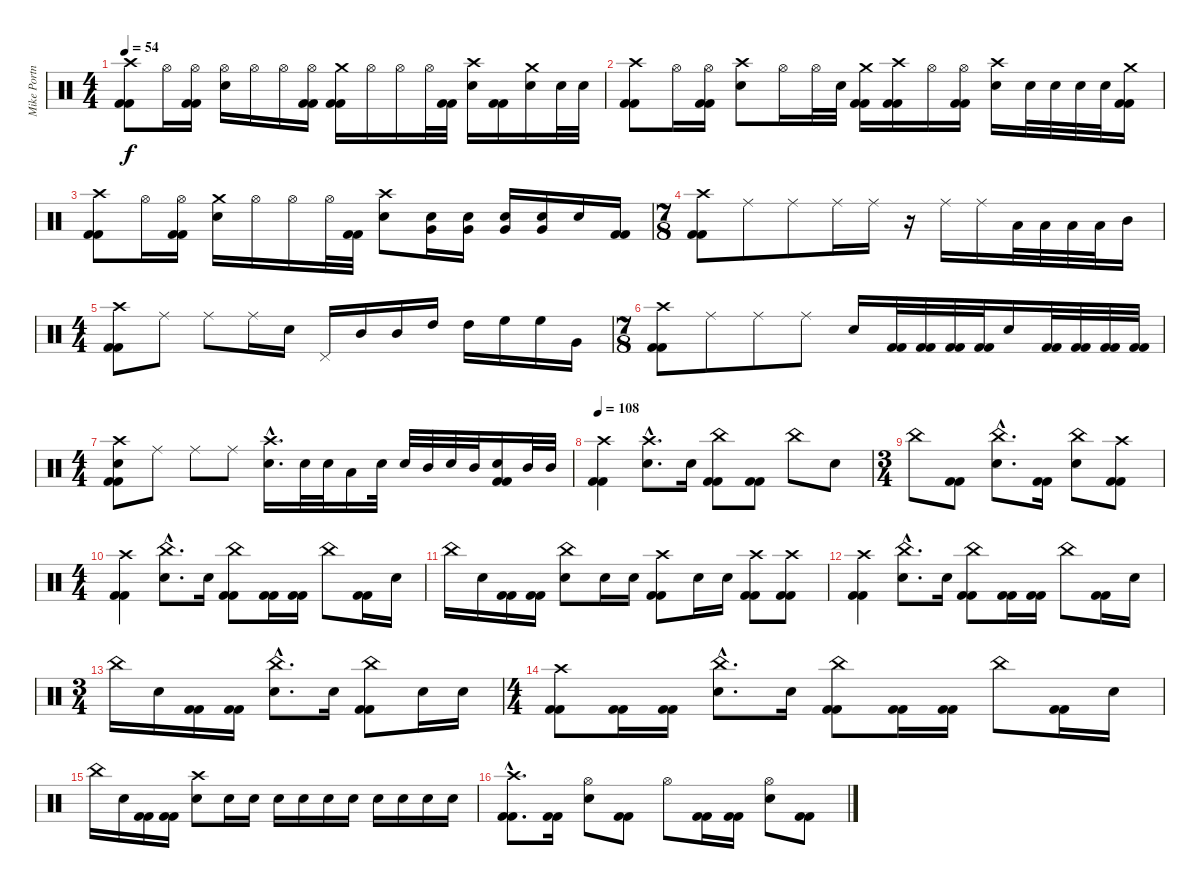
\track ("Mike Portnoy - Drum" "Mike Portn") {instrument percussion}
\staff {score}
\articulation defaults
\ts (4 4)
\tempo 54
\clef neutral
\ks c
("Crash high (hit)" "Kick (hit) 2" "Kick (hit) 2").8{dy f} "Hi-Hat (open)".16 ("Hi-Hat (open)" "Kick (hit) 2" "Kick (hit) 2").16 ("Hi-Hat (open)" "Snare (hit) 2").16 "Hi-Hat (open)".16 "Hi-Hat (open)".16 ("Hi-Hat (open)" "Kick (hit) 2" "Kick (hit) 2").16 ("Crash medium (hit)" "Kick (hit) 2" "Kick (hit) 2").16 "Hi-Hat (open)".16 "Hi-Hat (open)".16 "Hi-Hat (open)".32 ("Kick (hit) 2" "Kick (hit) 2").32 ("Crash high (hit)" "Snare (hit) 2").16 ("Kick (hit) 2" "Kick (hit) 2").16 ("Crash medium (hit)" "Snare (hit) 2").16 "Snare (hit) 2".32 "Snare (hit) 2".32 |
("Crash high (hit)" "Kick (hit) 2" "Kick (hit) 2").8 "Hi-Hat (open)".16 ("Hi-Hat (open)" "Kick (hit) 2" "Kick (hit) 2").16 ("Crash high (hit)" "Snare (hit) 2").8 "Hi-Hat (open)".16 "Hi-Hat (open)".32 "Snare (hit) 2".32 ("Crash medium (hit)" "Kick (hit) 2" "Kick (hit) 2").16 ("Crash high (hit)" "Kick (hit) 2" "Kick (hit) 2").16 "Hi-Hat (open)".16 ("Hi-Hat (open)" "Kick (hit) 2" "Kick (hit) 2").16 ("Crash high (hit)" "Snare (hit) 2").16 "Snare (hit) 2".32 "Snare (hit) 2".32 "Snare (hit) 2".32 "Snare (hit) 2".32 ("Crash medium (hit)" "Kick (hit) 2" "Kick (hit) 2").16 |
("Crash high (hit)" "Kick (hit) 2" "Kick (hit) 2").8 "Hi-Hat (open)".16 ("Hi-Hat (open)" "Kick (hit) 2" "Kick (hit) 2").16 ("Crash medium (hit)" "Snare (hit) 2").16 "Hi-Hat (open)".16 "Hi-Hat (open)".16 "Hi-Hat (open)".32 ("Kick (hit) 2" "Kick (hit) 2").32 ("Crash high (hit)" "Snare (hit) 2").8 ("Snare (hit) 2" "Very Low Tom (hit)").16 ("Snare (hit) 2" "Very Low Tom (hit)").16 ("Snare (hit) 2" "Very Low Tom (hit)").16 ("Snare (hit) 2" "Very Low Tom (hit)").16 "Snare (hit) 2".16 ("Kick (hit) 2" "Kick (hit) 2").16 |
\ts (7 8)
("Crash high (hit)" "Kick (hit) 2" "Kick (hit) 2").8 "Ride (middle)".8 "Ride (middle)".8 "Ride (middle)".16 "Ride (middle)".16 r.16 "Ride (middle)".16 "Ride (middle)".16 "Low Tom (hit)".32 "Low Tom (hit)".32 "Low Tom (hit)".32 "Low Tom (hit)".32 "Mid Tom (hit)".16 |
\ts (4 4)
("Crash high (hit)" "Kick (hit) 2" "Kick (hit) 2").8 "Ride (middle)".8 "Ride (middle)".8 "Ride (middle)".16 "Snare (hit) 2".16 "Pedal Hi-Hat (hit)".16 "Mid Tom (hit)".16 "Mid Tom (hit)".16 "High Tom (hit)".16 "High Tom (hit)".16 "High Floor Tom (hit)".16 "High Floor Tom (hit)".16 "Very Low Tom (hit)".16 |
\ts (7 8)
("Crash high (hit)" "Kick (hit) 2" "Kick (hit) 2").8 "Ride (middle)".8 "Ride (middle)".8 "Ride (middle)".8 "Snare (hit) 2".16 ("Kick (hit) 2" "Kick (hit) 2").32 ("Kick (hit) 2" "Kick (hit) 2").32 ("Kick (hit) 2" "Kick (hit) 2").32 ("Kick (hit) 2" "Kick (hit) 2").32 "Snare (hit) 2".16 ("Kick (hit) 2" "Kick (hit) 2").32 ("Kick (hit) 2" "Kick (hit) 2").32 ("Kick (hit) 2" "Kick (hit) 2").32 ("Kick (hit) 2" "Kick (hit) 2").32 |
\ts (4 4)
("Crash high (hit)" "Snare (hit) 2" "Kick (hit) 2" "Kick (hit) 2").8 "Ride (middle)".8 "Ride (middle)".8 "Ride (middle)".8 ("Crash high (hit)"{hac} "Snare (hit) 2"{hac}).16{d} "Snare (hit) 2".32 "Snare (hit) 2".32 "Low Tom (hit)".16 "Snare (hit) 2".32 "Snare (hit) 2".32 "Mid Tom (hit)".32 "Snare (hit) 2".32 "Mid Tom (hit)".32 ("Snare (hit) 2" "Kick (hit) 2" "Kick (hit) 2").16 "Mid Tom (hit)".32 "Mid Tom (hit)".32 |
\tempo 108
("Crash high (hit)" "Kick (hit) 2" "Kick (hit) 2").4 ("Crash high (hit)"{hac} "Snare (hit) 2"{hac}).8{d} "Snare (hit) 2".16 ("China (hit)" "Kick (hit) 2" "Kick (hit) 2").8 ("Kick (hit) 2" "Kick (hit) 2").8 "China (hit)".8 "Snare (hit) 2".8 |
\ts (3 4)
"China (hit)".8 ("Kick (hit) 2" "Kick (hit) 2").8 ("China (hit)"{hac} "Snare (hit) 2"{hac}).8{d} ("Kick (hit) 2" "Kick (hit) 2").16 ("China (hit)" "Snare (hit) 2").8 ("Crash high (hit)" "Kick (hit) 2" "Kick (hit) 2").8 |
\ts (4 4)
("Crash high (hit)" "Kick (hit) 2" "Kick (hit) 2").4 ("China (hit)"{hac} "Snare (hit) 2"{hac}).8{d} "Snare (hit) 2".16 ("China (hit)" "Kick (hit) 2" "Kick (hit) 2").8 ("Kick (hit) 2" "Kick (hit) 2").16 ("Kick (hit) 2" "Kick (hit) 2").16 "China (hit)".8 ("Kick (hit) 2" "Kick (hit) 2").16 "Snare (hit) 2".16 |
"China (hit)".16 "Snare (hit) 2".16 ("Kick (hit) 2" "Kick (hit) 2").16 ("Kick (hit) 2" "Kick (hit) 2").16 ("China (hit)" "Snare (hit) 2").8 "Snare (hit) 2".16 "Snare (hit) 2".16 ("Crash high (hit)" "Kick (hit) 2" "Kick (hit) 2").8 "Snare (hit) 2".16 "Snare (hit) 2".16 ("Crash high (hit)" "Kick (hit) 2" "Kick (hit) 2").8 ("Crash high (hit)" "Kick (hit) 2" "Kick (hit) 2").8 |
("Crash high (hit)" "Kick (hit) 2" "Kick (hit) 2").4 ("China (hit)"{hac} "Snare (hit) 2"{hac}).8{d} "Snare (hit) 2".16 ("China (hit)" "Kick (hit) 2" "Kick (hit) 2").8 ("Kick (hit) 2" "Kick (hit) 2").16 ("Kick (hit) 2" "Kick (hit) 2").16 "China (hit)".8 ("Kick (hit) 2" "Kick (hit) 2").16 "Snare (hit) 2".16 |
\ts (3 4)
"China (hit)".16 "Snare (hit) 2".16 ("Kick (hit) 2" "Kick (hit) 2").16 ("Kick (hit) 2" "Kick (hit) 2").16 ("China (hit)"{hac} "Snare (hit) 2"{hac}).8{d} "Snare (hit) 2".16 ("China (hit)" "Kick (hit) 2" "Kick (hit) 2").8 "Snare (hit) 2".16 "Snare (hit) 2".16 |
\ts (4 4)
("Crash high (hit)" "Kick (hit) 2" "Kick (hit) 2").8 ("Kick (hit) 2" "Kick (hit) 2").16 ("Kick (hit) 2" "Kick (hit) 2").16 ("China (hit)"{hac} "Snare (hit) 2"{hac}).8{d} "Snare (hit) 2".16 ("China (hit)" "Kick (hit) 2" "Kick (hit) 2").8 ("Kick (hit) 2" "Kick (hit) 2").16 ("Kick (hit) 2" "Kick (hit) 2").16 "China (hit)".8 ("Kick (hit) 2" "Kick (hit) 2").16 "Snare (hit) 2".16 |
"China (hit)".16 "Snare (hit) 2".16 ("Kick (hit) 2" "Kick (hit) 2").16 ("Kick (hit) 2" "Kick (hit) 2").16 ("Crash high (hit)" "Snare (hit) 2").8 "Snare (hit) 2".16 "Snare (hit) 2".16 "Snare (hit) 2".16 "Snare (hit) 2".16 "Snare (hit) 2".16 "Snare (hit) 2".16 "Snare (hit) 2".16 "Snare (hit) 2".16 "Snare (hit) 2".16 "Snare (hit) 2".16 |
("Crash high (hit)"{hac} "Kick (hit) 2"{hac} "Kick (hit) 2"{hac}).8{d} ("Kick (hit) 2" "Kick (hit) 2").16 ("Hi-Hat (open)" "Snare (hit) 2").8 ("Kick (hit) 2" "Kick (hit) 2").8 "Hi-Hat (open)".8 ("Kick (hit) 2" "Kick (hit) 2").16 ("Kick (hit) 2" "Kick (hit) 2").16 ("Hi-Hat (open)" "Snare (hit) 2").8 ("Kick (hit) 2" "Kick (hit) 2").8
